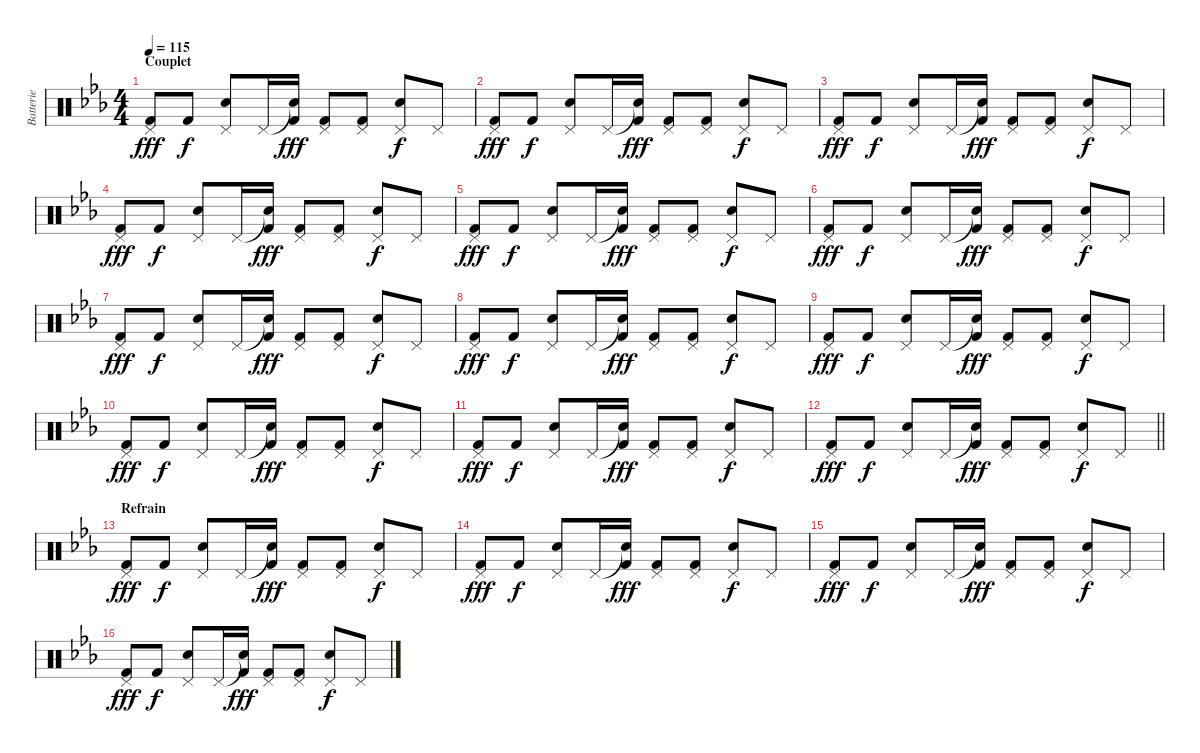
\track ("Batterie" "Batterie") {instrument percussion}
\staff {score}
\articulation defaults
\ts (4 4)
\section ("" "Couplet")
\tempo 115
\clef neutral
\ks eb
("Pedal Hi-Hat (hit)" "Kick (hit) 2").8{dy fff} "Kick (hit) 2".8{dy f} ("Pedal Hi-Hat (hit)" "Snare (hit) 2").8 "Pedal Hi-Hat (hit)".16 ("Snare (hit)"{t} "Kick (hit) 2").16{dy fff} ("Pedal Hi-Hat (hit)" "Kick (hit) 2").8 ("Pedal Hi-Hat (hit)" "Kick (hit) 2").8 ("Pedal Hi-Hat (hit)" "Snare (hit) 2").8{dy f} "Pedal Hi-Hat (hit)".8 |
("Pedal Hi-Hat (hit)" "Kick (hit) 2").8{dy fff} "Kick (hit) 2".8{dy f} ("Pedal Hi-Hat (hit)" "Snare (hit) 2").8 "Pedal Hi-Hat (hit)".16 ("Snare (hit)"{t} "Kick (hit) 2").16{dy fff} ("Pedal Hi-Hat (hit)" "Kick (hit) 2").8 ("Pedal Hi-Hat (hit)" "Kick (hit) 2").8 ("Pedal Hi-Hat (hit)" "Snare (hit) 2").8{dy f} "Pedal Hi-Hat (hit)".8 |
("Pedal Hi-Hat (hit)" "Kick (hit) 2").8{dy fff} "Kick (hit) 2".8{dy f} ("Pedal Hi-Hat (hit)" "Snare (hit) 2").8 "Pedal Hi-Hat (hit)".16 ("Snare (hit)"{t} "Kick (hit) 2").16{dy fff} ("Pedal Hi-Hat (hit)" "Kick (hit) 2").8 ("Pedal Hi-Hat (hit)" "Kick (hit) 2").8 ("Pedal Hi-Hat (hit)" "Snare (hit) 2").8{dy f} "Pedal Hi-Hat (hit)".8 |
("Pedal Hi-Hat (hit)" "Kick (hit) 2").8{dy fff} "Kick (hit) 2".8{dy f} ("Pedal Hi-Hat (hit)" "Snare (hit) 2").8 "Pedal Hi-Hat (hit)".16 ("Snare (hit)"{t} "Kick (hit) 2").16{dy fff} ("Pedal Hi-Hat (hit)" "Kick (hit) 2").8 ("Pedal Hi-Hat (hit)" "Kick (hit) 2").8 ("Pedal Hi-Hat (hit)" "Snare (hit) 2").8{dy f} "Pedal Hi-Hat (hit)".8 |
("Pedal Hi-Hat (hit)" "Kick (hit) 2").8{dy fff} "Kick (hit) 2".8{dy f} ("Pedal Hi-Hat (hit)" "Snare (hit) 2").8 "Pedal Hi-Hat (hit)".16 ("Snare (hit)"{t} "Kick (hit) 2").16{dy fff} ("Pedal Hi-Hat (hit)" "Kick (hit) 2").8 ("Pedal Hi-Hat (hit)" "Kick (hit) 2").8 ("Pedal Hi-Hat (hit)" "Snare (hit) 2").8{dy f} "Pedal Hi-Hat (hit)".8 |
("Pedal Hi-Hat (hit)" "Kick (hit) 2").8{dy fff} "Kick (hit) 2".8{dy f} ("Pedal Hi-Hat (hit)" "Snare (hit) 2").8 "Pedal Hi-Hat (hit)".16 ("Snare (hit)"{t} "Kick (hit) 2").16{dy fff} ("Pedal Hi-Hat (hit)" "Kick (hit) 2").8 ("Pedal Hi-Hat (hit)" "Kick (hit) 2").8 ("Pedal Hi-Hat (hit)" "Snare (hit) 2").8{dy f} "Pedal Hi-Hat (hit)".8 |
("Pedal Hi-Hat (hit)" "Kick (hit) 2").8{dy fff} "Kick (hit) 2".8{dy f} ("Pedal Hi-Hat (hit)" "Snare (hit) 2").8 "Pedal Hi-Hat (hit)".16 ("Snare (hit)"{t} "Kick (hit) 2").16{dy fff} ("Pedal Hi-Hat (hit)" "Kick (hit) 2").8 ("Pedal Hi-Hat (hit)" "Kick (hit) 2").8 ("Pedal Hi-Hat (hit)" "Snare (hit) 2").8{dy f} "Pedal Hi-Hat (hit)".8 |
("Pedal Hi-Hat (hit)" "Kick (hit) 2").8{dy fff} "Kick (hit) 2".8{dy f} ("Pedal Hi-Hat (hit)" "Snare (hit) 2").8 "Pedal Hi-Hat (hit)".16 ("Snare (hit)"{t} "Kick (hit) 2").16{dy fff} ("Pedal Hi-Hat (hit)" "Kick (hit) 2").8 ("Pedal Hi-Hat (hit)" "Kick (hit) 2").8 ("Pedal Hi-Hat (hit)" "Snare (hit) 2").8{dy f} "Pedal Hi-Hat (hit)".8 |
("Pedal Hi-Hat (hit)" "Kick (hit) 2").8{dy fff} "Kick (hit) 2".8{dy f} ("Pedal Hi-Hat (hit)" "Snare (hit) 2").8 "Pedal Hi-Hat (hit)".16 ("Snare (hit)"{t} "Kick (hit) 2").16{dy fff} ("Pedal Hi-Hat (hit)" "Kick (hit) 2").8 ("Pedal Hi-Hat (hit)" "Kick (hit) 2").8 ("Pedal Hi-Hat (hit)" "Snare (hit) 2").8{dy f} "Pedal Hi-Hat (hit)".8 |
("Pedal Hi-Hat (hit)" "Kick (hit) 2").8{dy fff} "Kick (hit) 2".8{dy f} ("Pedal Hi-Hat (hit)" "Snare (hit) 2").8 "Pedal Hi-Hat (hit)".16 ("Snare (hit)"{t} "Kick (hit) 2").16{dy fff} ("Pedal Hi-Hat (hit)" "Kick (hit) 2").8 ("Pedal Hi-Hat (hit)" "Kick (hit) 2").8 ("Pedal Hi-Hat (hit)" "Snare (hit) 2").8{dy f} "Pedal Hi-Hat (hit)".8 |
("Pedal Hi-Hat (hit)" "Kick (hit) 2").8{dy fff} "Kick (hit) 2".8{dy f} ("Pedal Hi-Hat (hit)" "Snare (hit) 2").8 "Pedal Hi-Hat (hit)".16 ("Snare (hit)"{t} "Kick (hit) 2").16{dy fff} ("Pedal Hi-Hat (hit)" "Kick (hit) 2").8 ("Pedal Hi-Hat (hit)" "Kick (hit) 2").8 ("Pedal Hi-Hat (hit)" "Snare (hit) 2").8{dy f} "Pedal Hi-Hat (hit)".8 |
\barLineRight lightlight
("Pedal Hi-Hat (hit)" "Kick (hit) 2").8{dy fff} "Kick (hit) 2".8{dy f} ("Pedal Hi-Hat (hit)" "Snare (hit) 2").8 "Pedal Hi-Hat (hit)".16 ("Snare (hit)"{t} "Kick (hit) 2").16{dy fff} ("Pedal Hi-Hat (hit)" "Kick (hit) 2").8 ("Pedal Hi-Hat (hit)" "Kick (hit) 2").8 ("Pedal Hi-Hat (hit)" "Snare (hit) 2").8{dy f} "Pedal Hi-Hat (hit)".8 |
\section ("" "Refrain")
("Pedal Hi-Hat (hit)" "Kick (hit) 2").8{dy fff} "Kick (hit) 2".8{dy f} ("Pedal Hi-Hat (hit)" "Snare (hit) 2").8 "Pedal Hi-Hat (hit)".16 ("Snare (hit)"{t} "Kick (hit) 2").16{dy fff} ("Pedal Hi-Hat (hit)" "Kick (hit) 2").8 ("Pedal Hi-Hat (hit)" "Kick (hit) 2").8 ("Pedal Hi-Hat (hit)" "Snare (hit) 2").8{dy f} "Pedal Hi-Hat (hit)".8 |
("Pedal Hi-Hat (hit)" "Kick (hit) 2").8{dy fff} "Kick (hit) 2".8{dy f} ("Pedal Hi-Hat (hit)" "Snare (hit) 2").8 "Pedal Hi-Hat (hit)".16 ("Snare (hit)"{t} "Kick (hit) 2").16{dy fff} ("Pedal Hi-Hat (hit)" "Kick (hit) 2").8 ("Pedal Hi-Hat (hit)" "Kick (hit) 2").8 ("Pedal Hi-Hat (hit)" "Snare (hit) 2").8{dy f} "Pedal Hi-Hat (hit)".8 |
("Pedal Hi-Hat (hit)" "Kick (hit) 2").8{dy fff} "Kick (hit) 2".8{dy f} ("Pedal Hi-Hat (hit)" "Snare (hit) 2").8 "Pedal Hi-Hat (hit)".16 ("Snare (hit)"{t} "Kick (hit) 2").16{dy fff} ("Pedal Hi-Hat (hit)" "Kick (hit) 2").8 ("Pedal Hi-Hat (hit)" "Kick (hit) 2").8 ("Pedal Hi-Hat (hit)" "Snare (hit) 2").8{dy f} "Pedal Hi-Hat (hit)".8 |
("Pedal Hi-Hat (hit)" "Kick (hit) 2").8{dy fff} "Kick (hit) 2".8{dy f} ("Pedal Hi-Hat (hit)" "Snare (hit) 2").8 "Pedal Hi-Hat (hit)".16 ("Snare (hit)"{t} "Kick (hit) 2").16{dy fff} ("Pedal Hi-Hat (hit)" "Kick (hit) 2").8 ("Pedal Hi-Hat (hit)" "Kick (hit) 2").8 ("Pedal Hi-Hat (hit)" "Snare (hit) 2").8{dy f} "Pedal Hi-Hat (hit)".8
